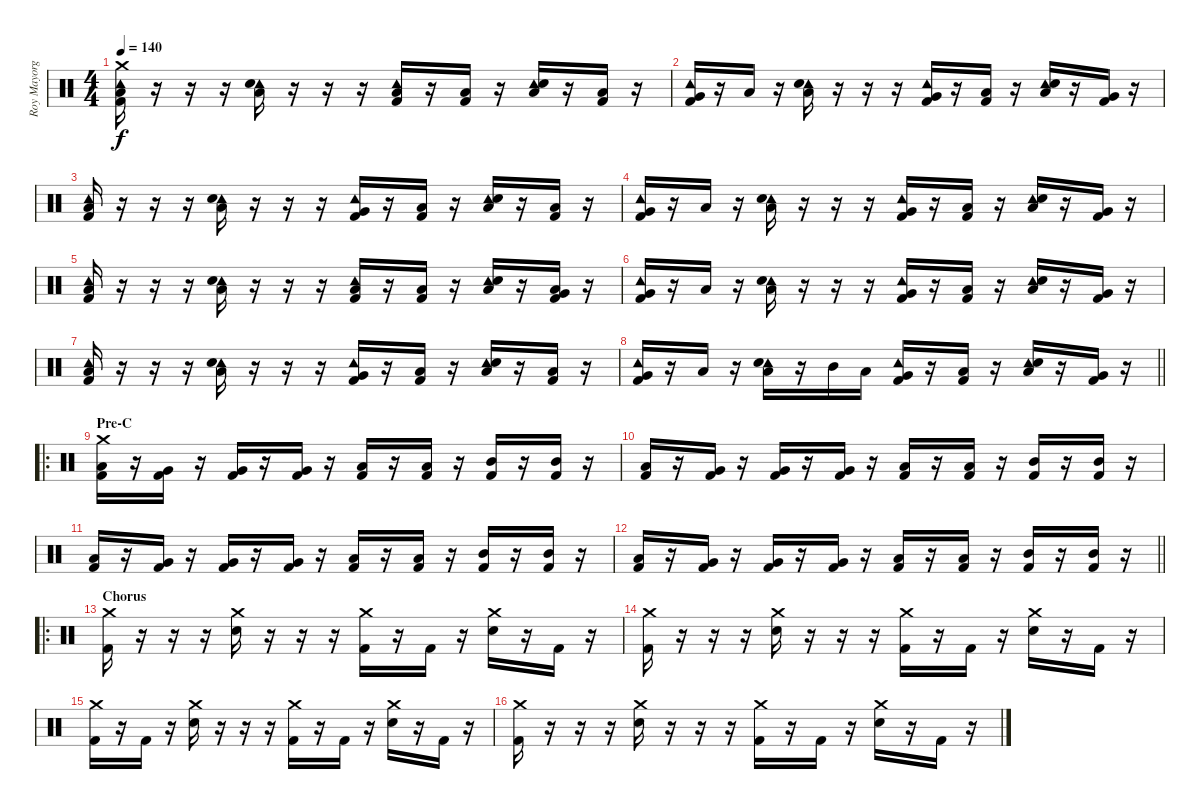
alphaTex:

\track ("Roy Mayorga" "Roy Mayorg") {instrument percussion}
\staff {score}
\articulation defaults
\ts (4 4)
\tempo 140
\clef neutral
\ks c
("Crash medium (hit)" "Tambourine (hit)" "Low Tom (hit)" "Kick (hit) 2").16{dy f} r.16 r.16 r.16 ("Tambourine (hit)" "Low Tom (hit)" "Snare (hit) 2").16 r.16 r.16 r.16 ("Tambourine (hit)" "Low Tom (hit)" "Kick (hit) 2").16 r.16 ("Low Floor Tom (hit)" "Kick (hit) 2").16 r.16 ("Tambourine (hit)" "Low Tom (hit)" "Snare (hit) 2").16 r.16 ("Low Floor Tom (hit)" "Kick (hit) 2").16 r.16 |
("Tambourine (hit)" "Very Low Tom (hit)" "Kick (hit) 2").16 r.16 "Low Tom (hit)".16 r.16 ("Tambourine (hit)" "Low Tom (hit)" "Snare (hit) 2").16 r.16 r.16 r.16 ("Tambourine (hit)" "Very Low Tom (hit)" "Kick (hit) 2").16 r.16 ("Low Tom (hit)" "Kick (hit) 2").16 r.16 ("Tambourine (hit)" "Low Tom (hit)" "Snare (hit) 2").16 r.16 ("Very Low Tom (hit)" "Kick (hit) 2").16 r.16 |
("Tambourine (hit)" "Low Tom (hit)" "Kick (hit) 2").16 r.16 r.16 r.16 ("Tambourine (hit)" "Low Tom (hit)" "Snare (hit) 2").16 r.16 r.16 r.16 ("Tambourine (hit)" "Very Low Tom (hit)" "Kick (hit) 2").16 r.16 ("Low Tom (hit)" "Kick (hit) 2").16 r.16 ("Tambourine (hit)" "Low Tom (hit)" "Snare (hit) 2").16 r.16 ("Low Floor Tom (hit)" "Kick (hit) 2").16 r.16 |
("Tambourine (hit)" "Very Low Tom (hit)" "Kick (hit) 2").16 r.16 "Low Tom (hit)".16 r.16 ("Tambourine (hit)" "Low Tom (hit)" "Snare (hit) 2").16 r.16 r.16 r.16 ("Tambourine (hit)" "Very Low Tom (hit)" "Kick (hit) 2").16 r.16 ("Low Tom (hit)" "Kick (hit) 2").16 r.16 ("Tambourine (hit)" "Low Tom (hit)" "Snare (hit) 2").16 r.16 ("Very Low Tom (hit)" "Kick (hit) 2").16 r.16 |
("Tambourine (hit)" "Low Tom (hit)" "Kick (hit) 2").16 r.16 r.16 r.16 ("Tambourine (hit)" "Low Tom (hit)" "Snare (hit) 2").16 r.16 r.16 r.16 ("Tambourine (hit)" "Low Tom (hit)" "Kick (hit) 2").16 r.16 ("Low Floor Tom (hit)" "Kick (hit) 2").16 r.16 ("Tambourine (hit)" "Low Tom (hit)" "Snare (hit) 2").16 r.16 ("Low Floor Tom (hit)" "Very Low Tom (hit)" "Kick (hit) 2").16 r.16 |
("Tambourine (hit)" "Very Low Tom (hit)" "Kick (hit) 2").16 r.16 "Low Tom (hit)".16 r.16 ("Tambourine (hit)" "Low Tom (hit)" "Snare (hit) 2").16 r.16 r.16 r.16 ("Tambourine (hit)" "Very Low Tom (hit)" "Kick (hit) 2").16 r.16 ("Low Tom (hit)" "Kick (hit) 2").16 r.16 ("Tambourine (hit)" "Low Tom (hit)" "Snare (hit) 2").16 r.16 ("Very Low Tom (hit)" "Kick (hit) 2").16 r.16 |
("Tambourine (hit)" "Low Tom (hit)" "Kick (hit) 2").16 r.16 r.16 r.16 ("Tambourine (hit)" "Low Tom (hit)" "Snare (hit) 2").16 r.16 r.16 r.16 ("Tambourine (hit)" "Very Low Tom (hit)" "Kick (hit) 2").16 r.16 ("Low Tom (hit)" "Kick (hit) 2").16 r.16 ("Tambourine (hit)" "Low Tom (hit)" "Snare (hit) 2").16 r.16 ("Low Floor Tom (hit)" "Kick (hit) 2").16 r.16 |
\barLineRight lightlight
("Tambourine (hit)" "Very Low Tom (hit)" "Kick (hit) 2").16 r.16 "Low Tom (hit)".16 r.16 ("Tambourine (hit)" "Low Tom (hit)" "Snare (hit) 2").16 r.16 "Mid Tom (hit)".16 "Low Tom (hit)".16 ("Tambourine (hit)" "Very Low Tom (hit)" "Kick (hit) 2").16 r.16 ("Low Tom (hit)" "Kick (hit) 2").16 r.16 ("Tambourine (hit)" "Low Tom (hit)" "Snare (hit) 2").16 r.16 ("Very Low Tom (hit)" "Kick (hit) 2").16 r.16 |
\ro
\section ("" "Pre-C")
("Crash medium (hit)" "Low Tom (hit)" "Kick (hit) 2").16 r.16 ("Very Low Tom (hit)" "Kick (hit) 2").16 r.16 ("Very Low Tom (hit)" "Kick (hit) 2").16 r.16 ("Very Low Tom (hit)" "Kick (hit) 2").16 r.16 ("Low Tom (hit)" "Kick (hit) 2").16 r.16 ("Low Tom (hit)" "Kick (hit) 2").16 r.16 ("Mid Tom (hit)" "Kick (hit) 2").16 r.16 ("Mid Tom (hit)" "Kick (hit) 2").16 r.16 |
("Low Tom (hit)" "Kick (hit) 2").16 r.16 ("Very Low Tom (hit)" "Kick (hit) 2").16 r.16 ("Very Low Tom (hit)" "Kick (hit) 2").16 r.16 ("Very Low Tom (hit)" "Kick (hit) 2").16 r.16 ("Low Tom (hit)" "Kick (hit) 2").16 r.16 ("Low Tom (hit)" "Kick (hit) 2").16 r.16 ("Mid Tom (hit)" "Kick (hit) 2").16 r.16 ("Mid Tom (hit)" "Kick (hit) 2").16 r.16 |
("Low Tom (hit)" "Kick (hit) 2").16 r.16 ("Very Low Tom (hit)" "Kick (hit) 2").16 r.16 ("Very Low Tom (hit)" "Kick (hit) 2").16 r.16 ("Very Low Tom (hit)" "Kick (hit) 2").16 r.16 ("Low Tom (hit)" "Kick (hit) 2").16 r.16 ("Low Tom (hit)" "Kick (hit) 2").16 r.16 ("Mid Tom (hit)" "Kick (hit) 2").16 r.16 ("Mid Tom (hit)" "Kick (hit) 2").16 r.16 |
\barLineRight lightlight
("Low Tom (hit)" "Kick (hit) 2").16 r.16 ("Very Low Tom (hit)" "Kick (hit) 2").16 r.16 ("Very Low Tom (hit)" "Kick (hit) 2").16 r.16 ("Very Low Tom (hit)" "Kick (hit) 2").16 r.16 ("Low Tom (hit)" "Kick (hit) 2").16 r.16 ("Low Tom (hit)" "Kick (hit) 2").16 r.16 ("Mid Tom (hit)" "Kick (hit) 2").16 r.16 ("Mid Tom (hit)" "Kick (hit) 2").16 r.16 |
\ro
\section ("" "Chorus")
("Crash medium (hit)" "Kick (hit) 2").16 r.16 r.16 r.16 ("Crash medium (hit)" "Snare (hit) 2").16 r.16 r.16 r.16 ("Crash medium (hit)" "Kick (hit) 2").16 r.16 "Kick (hit) 2".16 r.16 ("Crash medium (hit)" "Snare (hit) 2").16 r.16 "Kick (hit) 2".16 r.16 |
("Crash medium (hit)" "Kick (hit) 2").16 r.16 r.16 r.16 ("Crash medium (hit)" "Snare (hit) 2").16 r.16 r.16 r.16 ("Crash medium (hit)" "Kick (hit) 2").16 r.16 "Kick (hit) 2".16 r.16 ("Crash medium (hit)" "Snare (hit) 2").16 r.16 "Kick (hit) 2".16 r.16 |
("Crash medium (hit)" "Kick (hit) 2").16 r.16 "Kick (hit) 2".16 r.16 ("Crash medium (hit)" "Snare (hit) 2").16 r.16 r.16 r.16 ("Crash medium (hit)" "Kick (hit) 2").16 r.16 "Kick (hit) 2".16 r.16 ("Crash medium (hit)" "Snare (hit) 2").16 r.16 "Kick (hit) 2".16 r.16 |
("Crash medium (hit)" "Kick (hit) 2").16 r.16 r.16 r.16 ("Crash medium (hit)" "Snare (hit) 2").16 r.16 r.16 r.16 ("Crash medium (hit)" "Kick (hit) 2").16 r.16 "Kick (hit) 2".16 r.16 ("Crash medium (hit)" "Snare (hit) 2").16 r.16 "Kick (hit) 2".16 r.16
